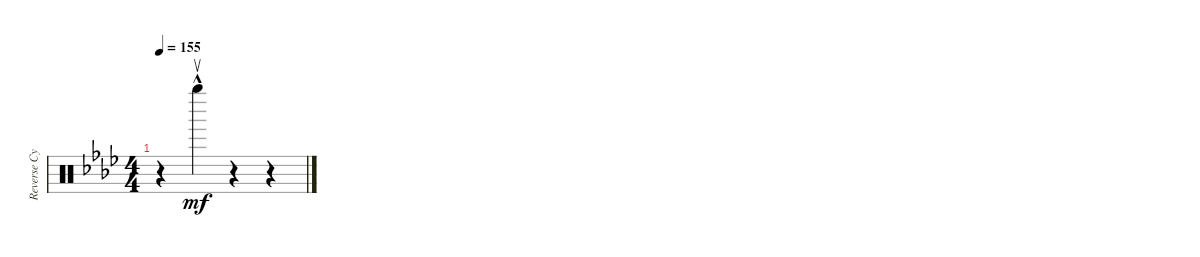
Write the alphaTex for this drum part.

\track ("Reverse Cymbal" "Reverse Cy") {instrument percussion}
\staff {score}
\articulation defaults
\ts (4 4)
\tempo 155
\clef neutral
\ks ab
r.4{dy mf} "Right Maraca (return)"{hac}.4 r.4 r.4
